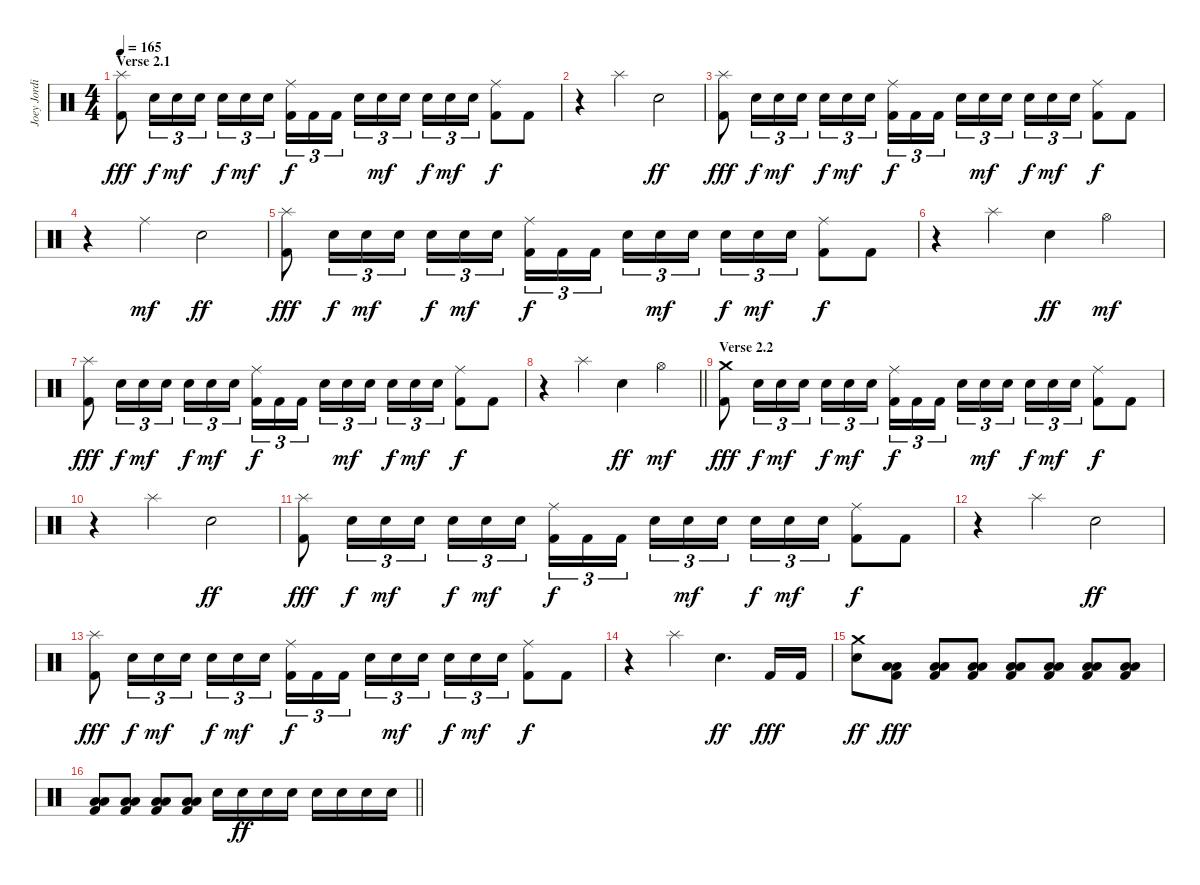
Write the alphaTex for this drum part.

\track ("Joey Jordison" "Joey Jordi") {instrument percussion}
\staff {score}
\articulation defaults
\ts (4 4)
\section ("" "Verse 2.1")
\tempo 165
\clef neutral
\ks c
("Splash (hit)" "Kick (hit) 2").8{dy fff} "Electric Snare (hit)".16{tu (3 2) dy f} "Electric Snare (hit)".16{tu (3 2) dy mf} "Electric Snare (hit)".16{tu (3 2)} "Electric Snare (hit)".16{tu (3 2) dy f} "Electric Snare (hit)".16{tu (3 2) dy mf} "Electric Snare (hit)".16{tu (3 2) beam splitsecondary} ("Ride (middle)" "Kick (hit) 2").16{tu (3 2) dy f} "Kick (hit) 2".16{tu (3 2)} "Kick (hit) 2".16{tu (3 2)} "Electric Snare (hit)".16{tu (3 2)} "Electric Snare (hit)".16{tu (3 2) dy mf} "Electric Snare (hit)".16{tu (3 2) beam splitsecondary} "Electric Snare (hit)".16{tu (3 2) dy f} "Electric Snare (hit)".16{tu (3 2) dy mf} "Electric Snare (hit)".16{tu (3 2)} ("Ride (middle)" "Kick (hit) 2").8{dy f} "Kick (hit) 2".8 |
r.4 "Splash (hit)".4 "Electric Snare (hit)".2{dy ff} |
("Splash (hit)" "Kick (hit) 2").8{dy fff} "Electric Snare (hit)".16{tu (3 2) dy f} "Electric Snare (hit)".16{tu (3 2) dy mf} "Electric Snare (hit)".16{tu (3 2)} "Electric Snare (hit)".16{tu (3 2) dy f} "Electric Snare (hit)".16{tu (3 2) dy mf} "Electric Snare (hit)".16{tu (3 2) beam splitsecondary} ("Ride (middle)" "Kick (hit) 2").16{tu (3 2) dy f} "Kick (hit) 2".16{tu (3 2)} "Kick (hit) 2".16{tu (3 2)} "Electric Snare (hit)".16{tu (3 2)} "Electric Snare (hit)".16{tu (3 2) dy mf} "Electric Snare (hit)".16{tu (3 2) beam splitsecondary} "Electric Snare (hit)".16{tu (3 2) dy f} "Electric Snare (hit)".16{tu (3 2) dy mf} "Electric Snare (hit)".16{tu (3 2)} ("Ride (middle)" "Kick (hit) 2").8{dy f} "Kick (hit) 2".8 |
r.4 "Ride (middle)".4{dy mf} "Electric Snare (hit)".2{dy ff} |
("Splash (hit)" "Kick (hit) 2").8{dy fff} "Electric Snare (hit)".16{tu (3 2) dy f} "Electric Snare (hit)".16{tu (3 2) dy mf} "Electric Snare (hit)".16{tu (3 2)} "Electric Snare (hit)".16{tu (3 2) dy f} "Electric Snare (hit)".16{tu (3 2) dy mf} "Electric Snare (hit)".16{tu (3 2) beam splitsecondary} ("Ride (middle)" "Kick (hit) 2").16{tu (3 2) dy f} "Kick (hit) 2".16{tu (3 2)} "Kick (hit) 2".16{tu (3 2)} "Electric Snare (hit)".16{tu (3 2)} "Electric Snare (hit)".16{tu (3 2) dy mf} "Electric Snare (hit)".16{tu (3 2) beam splitsecondary} "Electric Snare (hit)".16{tu (3 2) dy f} "Electric Snare (hit)".16{tu (3 2) dy mf} "Electric Snare (hit)".16{tu (3 2)} ("Ride (middle)" "Kick (hit) 2").8{dy f} "Kick (hit) 2".8 |
r.4 "Splash (hit)".4 "Electric Snare (hit)".4{dy ff} "Hi-Hat (open)".4{dy mf} |
("Splash (hit)" "Kick (hit) 2").8{dy fff} "Electric Snare (hit)".16{tu (3 2) dy f} "Electric Snare (hit)".16{tu (3 2) dy mf} "Electric Snare (hit)".16{tu (3 2)} "Electric Snare (hit)".16{tu (3 2) dy f} "Electric Snare (hit)".16{tu (3 2) dy mf} "Electric Snare (hit)".16{tu (3 2) beam splitsecondary} ("Ride (middle)" "Kick (hit) 2").16{tu (3 2) dy f} "Kick (hit) 2".16{tu (3 2)} "Kick (hit) 2".16{tu (3 2)} "Electric Snare (hit)".16{tu (3 2)} "Electric Snare (hit)".16{tu (3 2) dy mf} "Electric Snare (hit)".16{tu (3 2) beam splitsecondary} "Electric Snare (hit)".16{tu (3 2) dy f} "Electric Snare (hit)".16{tu (3 2) dy mf} "Electric Snare (hit)".16{tu (3 2)} ("Ride (middle)" "Kick (hit) 2").8{dy f} "Kick (hit) 2".8 |
\barLineRight lightlight
r.4 "Splash (hit)".4 "Electric Snare (hit)".4{dy ff} "Hi-Hat (open)".4{dy mf} |
\section ("" "Verse 2.2")
("Crash medium (hit)" "Kick (hit) 2").8{dy fff} "Electric Snare (hit)".16{tu (3 2) dy f} "Electric Snare (hit)".16{tu (3 2) dy mf} "Electric Snare (hit)".16{tu (3 2)} "Electric Snare (hit)".16{tu (3 2) dy f} "Electric Snare (hit)".16{tu (3 2) dy mf} "Electric Snare (hit)".16{tu (3 2) beam splitsecondary} ("Ride (middle)" "Kick (hit) 2").16{tu (3 2) dy f} "Kick (hit) 2".16{tu (3 2)} "Kick (hit) 2".16{tu (3 2)} "Electric Snare (hit)".16{tu (3 2)} "Electric Snare (hit)".16{tu (3 2) dy mf} "Electric Snare (hit)".16{tu (3 2) beam splitsecondary} "Electric Snare (hit)".16{tu (3 2) dy f} "Electric Snare (hit)".16{tu (3 2) dy mf} "Electric Snare (hit)".16{tu (3 2)} ("Ride (middle)" "Kick (hit) 2").8{dy f} "Kick (hit) 2".8 |
r.4 "Splash (hit)".4 "Electric Snare (hit)".2{dy ff} |
("Splash (hit)" "Kick (hit) 2").8{dy fff} "Electric Snare (hit)".16{tu (3 2) dy f} "Electric Snare (hit)".16{tu (3 2) dy mf} "Electric Snare (hit)".16{tu (3 2)} "Electric Snare (hit)".16{tu (3 2) dy f} "Electric Snare (hit)".16{tu (3 2) dy mf} "Electric Snare (hit)".16{tu (3 2) beam splitsecondary} ("Ride (middle)" "Kick (hit) 2").16{tu (3 2) dy f} "Kick (hit) 2".16{tu (3 2)} "Kick (hit) 2".16{tu (3 2)} "Electric Snare (hit)".16{tu (3 2)} "Electric Snare (hit)".16{tu (3 2) dy mf} "Electric Snare (hit)".16{tu (3 2) beam splitsecondary} "Electric Snare (hit)".16{tu (3 2) dy f} "Electric Snare (hit)".16{tu (3 2) dy mf} "Electric Snare (hit)".16{tu (3 2)} ("Ride (middle)" "Kick (hit) 2").8{dy f} "Kick (hit) 2".8 |
r.4 "Splash (hit)".4 "Electric Snare (hit)".2{dy ff} |
("Splash (hit)" "Kick (hit) 2").8{dy fff} "Electric Snare (hit)".16{tu (3 2) dy f} "Electric Snare (hit)".16{tu (3 2) dy mf} "Electric Snare (hit)".16{tu (3 2)} "Electric Snare (hit)".16{tu (3 2) dy f} "Electric Snare (hit)".16{tu (3 2) dy mf} "Electric Snare (hit)".16{tu (3 2) beam splitsecondary} ("Ride (middle)" "Kick (hit) 2").16{tu (3 2) dy f} "Kick (hit) 2".16{tu (3 2)} "Kick (hit) 2".16{tu (3 2)} "Electric Snare (hit)".16{tu (3 2)} "Electric Snare (hit)".16{tu (3 2) dy mf} "Electric Snare (hit)".16{tu (3 2) beam splitsecondary} "Electric Snare (hit)".16{tu (3 2) dy f} "Electric Snare (hit)".16{tu (3 2) dy mf} "Electric Snare (hit)".16{tu (3 2)} ("Ride (middle)" "Kick (hit) 2").8{dy f} "Kick (hit) 2".8 |
r.4 "Splash (hit)".4 "Electric Snare (hit)".4{d dy ff} "Kick (hit) 2".16{dy fff} "Kick (hit) 2".16 |
("Crash medium (hit)" "Electric Snare (hit)").8{dy ff} ("Low Tom (hit)" "Low Floor Tom (hit)" "Kick (hit) 2").8{dy fff} ("Low Tom (hit)" "Low Floor Tom (hit)" "Kick (hit) 2").8 ("Low Tom (hit)" "Low Floor Tom (hit)" "Kick (hit) 2").8 ("Low Tom (hit)" "Low Floor Tom (hit)" "Kick (hit) 2").8 ("Low Tom (hit)" "Low Floor Tom (hit)" "Kick (hit) 2").8 ("Low Tom (hit)" "Low Floor Tom (hit)" "Kick (hit) 2").8 ("Low Tom (hit)" "Low Floor Tom (hit)" "Kick (hit) 2").8 |
\barLineRight lightlight
("Low Tom (hit)" "Low Floor Tom (hit)" "Kick (hit) 2").8 ("Low Tom (hit)" "Low Floor Tom (hit)" "Kick (hit) 2").8 ("Low Tom (hit)" "Low Floor Tom (hit)" "Kick (hit) 2").8 ("Low Tom (hit)" "Low Floor Tom (hit)" "Kick (hit) 2").8 "Electric Snare (hit)".16 "Electric Snare (hit)".16{dy ff} "Electric Snare (hit)".16 "Electric Snare (hit)".16 "Electric Snare (hit)".16 "Electric Snare (hit)".16 "Electric Snare (hit)".16 "Electric Snare (hit)".16
